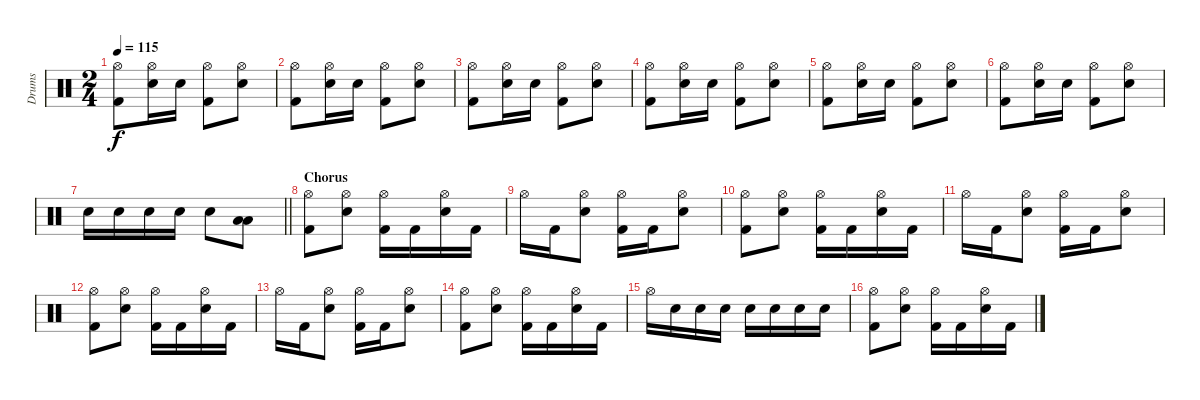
\track ("Drums" "Drums") {instrument percussion}
\staff {score}
\articulation defaults
\ts (2 4)
\tempo 115
\clef neutral
\ks c
("Hi-Hat (open)" "Kick (hit) 2").8{dy f} ("Hi-Hat (open)" "Electric Snare (hit)").16 "Electric Snare (hit)".16 ("Hi-Hat (open)" "Kick (hit) 2").8 ("Hi-Hat (open)" "Electric Snare (hit)").8 |
("Hi-Hat (open)" "Kick (hit) 2").8 ("Hi-Hat (open)" "Electric Snare (hit)").16 "Electric Snare (hit)".16 ("Hi-Hat (open)" "Kick (hit) 2").8 ("Hi-Hat (open)" "Electric Snare (hit)").8 |
("Hi-Hat (open)" "Kick (hit) 2").8 ("Hi-Hat (open)" "Electric Snare (hit)").16 "Electric Snare (hit)".16 ("Hi-Hat (open)" "Kick (hit) 2").8 ("Hi-Hat (open)" "Electric Snare (hit)").8 |
("Hi-Hat (open)" "Kick (hit) 2").8 ("Hi-Hat (open)" "Electric Snare (hit)").16 "Electric Snare (hit)".16 ("Hi-Hat (open)" "Kick (hit) 2").8 ("Hi-Hat (open)" "Electric Snare (hit)").8 |
("Hi-Hat (open)" "Kick (hit) 2").8 ("Hi-Hat (open)" "Electric Snare (hit)").16 "Electric Snare (hit)".16 ("Hi-Hat (open)" "Kick (hit) 2").8 ("Hi-Hat (open)" "Electric Snare (hit)").8 |
("Hi-Hat (open)" "Kick (hit) 2").8 ("Hi-Hat (open)" "Electric Snare (hit)").16 "Electric Snare (hit)".16 ("Hi-Hat (open)" "Kick (hit) 2").8 ("Hi-Hat (open)" "Electric Snare (hit)").8 |
\barLineRight lightlight "Electric Snare (hit)".16 "Electric Snare (hit)".16 "Electric Snare (hit)".16 "Electric Snare (hit)".16 "Electric Snare (hit)".8
("Low Tom (hit)" "Low Floor Tom (hit)").8 |
\section ("" "Chorus")
("Hi-Hat (open)" "Kick (hit) 2").8 ("Hi-Hat (open)" "Electric Snare (hit)").8 ("Hi-Hat (open)" "Kick (hit) 2").16 "Kick (hit) 2".16 ("Hi-Hat (open)" "Electric Snare (hit)").16 "Kick (hit) 2".16 |
"Hi-Hat (open)".16 "Kick (hit) 2".16 ("Hi-Hat (open)" "Electric Snare (hit)").8 ("Hi-Hat (open)" "Kick (hit) 2").16 "Kick (hit) 2".16 ("Hi-Hat (open)" "Electric Snare (hit)").8 |
("Hi-Hat (open)" "Kick (hit) 2").8 ("Hi-Hat (open)" "Electric Snare (hit)").8 ("Hi-Hat (open)" "Kick (hit) 2").16 "Kick (hit) 2".16 ("Hi-Hat (open)" "Electric Snare (hit)").16 "Kick (hit) 2".16 |
"Hi-Hat (open)".16 "Kick (hit) 2".16 ("Hi-Hat (open)" "Electric Snare (hit)").8 ("Hi-Hat (open)" "Kick (hit) 2").16 "Kick (hit) 2".16 ("Hi-Hat (open)" "Electric Snare (hit)").8 |
("Hi-Hat (open)" "Kick (hit) 2").8 ("Hi-Hat (open)" "Electric Snare (hit)").8 ("Hi-Hat (open)" "Kick (hit) 2").16 "Kick (hit) 2".16 ("Hi-Hat (open)" "Electric Snare (hit)").16 "Kick (hit) 2".16 |
"Hi-Hat (open)".16 "Kick (hit) 2".16 ("Hi-Hat (open)" "Electric Snare (hit)").8 ("Hi-Hat (open)" "Kick (hit) 2").16 "Kick (hit) 2".16 ("Hi-Hat (open)" "Electric Snare (hit)").8 |
("Hi-Hat (open)" "Kick (hit) 2").8 ("Hi-Hat (open)" "Electric Snare (hit)").8 ("Hi-Hat (open)" "Kick (hit) 2").16 "Kick (hit) 2".16 ("Hi-Hat (open)" "Electric Snare (hit)").16 "Kick (hit) 2".16 |
"Hi-Hat (open)".16 "Electric Snare (hit)".16 "Electric Snare (hit)".16 "Electric Snare (hit)".16 "Electric Snare (hit)".16 "Electric Snare (hit)".16 "Electric Snare (hit)".16 "Electric Snare (hit)".16 |
("Hi-Hat (open)" "Kick (hit) 2").8 ("Hi-Hat (open)" "Electric Snare (hit)").8 ("Hi-Hat (open)" "Kick (hit) 2").16 "Kick (hit) 2".16 ("Hi-Hat (open)" "Electric Snare (hit)").16 "Kick (hit) 2".16
